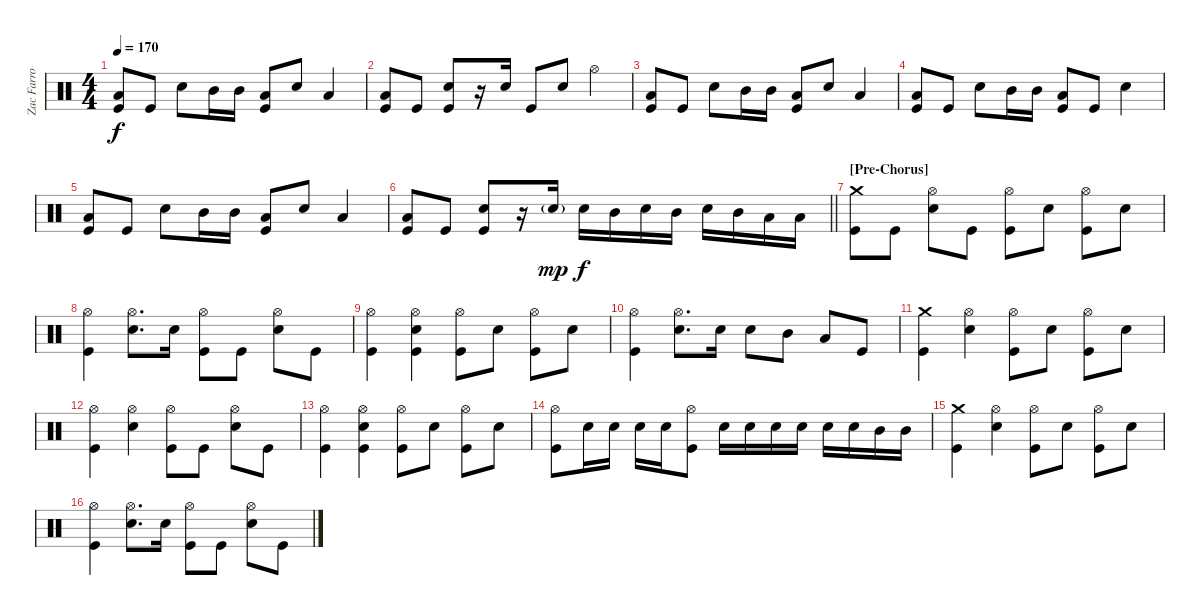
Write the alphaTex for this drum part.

\track ("Zac Farro" "Zac Farro") {instrument percussion}
\staff {score}
\articulation defaults
\ts (4 4)
\tempo 170
\clef neutral
\ks c
("Low Tom (hit)" "Kick (hit)").8{dy f} "Kick (hit)".8 "Electric Snare (hit)".8 "Mid Tom (hit)".16 "Mid Tom (hit)".16 ("Low Tom (hit)" "Kick (hit)").8 "Electric Snare (hit)".8 "Low Tom (hit)".4 |
("Low Tom (hit)" "Kick (hit)").8 "Kick (hit)".8 ("Electric Snare (hit)" "Kick (hit)").8 r.16 "Electric Snare (hit)".16 "Kick (hit)".8 "Electric Snare (hit)".8 "Hi-Hat (open)".4 |
("Low Tom (hit)" "Kick (hit)").8 "Kick (hit)".8 "Electric Snare (hit)".8 "Mid Tom (hit)".16 "Mid Tom (hit)".16 ("Low Tom (hit)" "Kick (hit)").8 "Electric Snare (hit)".8 "Low Tom (hit)".4 |
("Low Tom (hit)" "Kick (hit)").8 "Kick (hit)".8 "Electric Snare (hit)".8 "Mid Tom (hit)".16 "Mid Tom (hit)".16 ("Low Tom (hit)" "Kick (hit)").8 "Kick (hit)".8 "Electric Snare (hit)".4 |
("Low Tom (hit)" "Kick (hit)").8 "Kick (hit)".8 "Electric Snare (hit)".8 "Mid Tom (hit)".16 "Mid Tom (hit)".16 ("Low Tom (hit)" "Kick (hit)").8 "Electric Snare (hit)".8 "Low Tom (hit)".4 |
\barLineRight lightlight
("Low Tom (hit)" "Kick (hit)").8 "Kick (hit)".8 ("Electric Snare (hit)" "Kick (hit)").8 r.16 "Electric Snare (hit)"{g}.16{dy mp} "Electric Snare (hit)".16{dy f} "Mid Tom (hit)".16 "Electric Snare (hit)".16 "Mid Tom (hit)".16 "Electric Snare (hit)".16 "Mid Tom (hit)".16 "Low Tom (hit)".16 "Low Tom (hit)".16 |
\section ("" "[Pre-Chorus]")
("Crash medium (hit)" "Kick (hit)").8 "Kick (hit)".8 ("Hi-Hat (open)" "Electric Snare (hit)").8 "Kick (hit)".8 ("Hi-Hat (open)" "Kick (hit)").8 "Electric Snare (hit)".8 ("Hi-Hat (open)" "Kick (hit)").8 "Electric Snare (hit)".8 |
("Hi-Hat (open)" "Kick (hit)").4 ("Hi-Hat (open)" "Electric Snare (hit)").8{d} "Electric Snare (hit)".16 ("Hi-Hat (open)" "Kick (hit)").8 "Kick (hit)".8 ("Hi-Hat (open)" "Electric Snare (hit)").8 "Kick (hit)".8 |
("Hi-Hat (open)" "Kick (hit)").4 ("Hi-Hat (open)" "Electric Snare (hit)" "Kick (hit)").4 ("Hi-Hat (open)" "Kick (hit)").8 "Electric Snare (hit)".8 ("Hi-Hat (open)" "Kick (hit)").8 "Electric Snare (hit)".8 |
("Hi-Hat (open)" "Kick (hit)").4 ("Hi-Hat (open)" "Electric Snare (hit)").8{d} "Electric Snare (hit)".16 "Electric Snare (hit)".8 "Mid Tom (hit)".8 "Low Tom (hit)".8 "Kick (hit)".8 |
("Crash medium (hit)" "Kick (hit)").4 ("Hi-Hat (open)" "Electric Snare (hit)").4 ("Hi-Hat (open)" "Kick (hit)").8 "Electric Snare (hit)".8 ("Hi-Hat (open)" "Kick (hit)").8 "Electric Snare (hit)".8 |
("Hi-Hat (open)" "Kick (hit)").4 ("Hi-Hat (open)" "Electric Snare (hit)").4 ("Hi-Hat (open)" "Kick (hit)").8 "Kick (hit)".8 ("Hi-Hat (open)" "Electric Snare (hit)").8 "Kick (hit)".8 |
("Hi-Hat (open)" "Kick (hit)").4 ("Hi-Hat (open)" "Electric Snare (hit)" "Kick (hit)").4 ("Hi-Hat (open)" "Kick (hit)").8 "Electric Snare (hit)".8 ("Hi-Hat (open)" "Kick (hit)").8 "Electric Snare (hit)".8 |
("Hi-Hat (open)" "Kick (hit)").8 "Electric Snare (hit)".16 "Electric Snare (hit)".16 "Electric Snare (hit)".16 "Electric Snare (hit)".16 ("Hi-Hat (open)" "Kick (hit)").8 "Electric Snare (hit)".16 "Electric Snare (hit)".16 "Electric Snare (hit)".16 "Electric Snare (hit)".16 "Electric Snare (hit)".16 "Electric Snare (hit)".16 "Mid Tom (hit)".16 "Mid Tom (hit)".16 |
("Crash medium (hit)" "Kick (hit)").4 ("Hi-Hat (open)" "Electric Snare (hit)").4 ("Hi-Hat (open)" "Kick (hit)").8 "Electric Snare (hit)".8 ("Hi-Hat (open)" "Kick (hit)").8 "Electric Snare (hit)".8 |
("Hi-Hat (open)" "Kick (hit)").4 ("Hi-Hat (open)" "Electric Snare (hit)").8{d} "Electric Snare (hit)".16 ("Hi-Hat (open)" "Kick (hit)").8 "Kick (hit)".8 ("Hi-Hat (open)" "Electric Snare (hit)").8 "Kick (hit)".8
